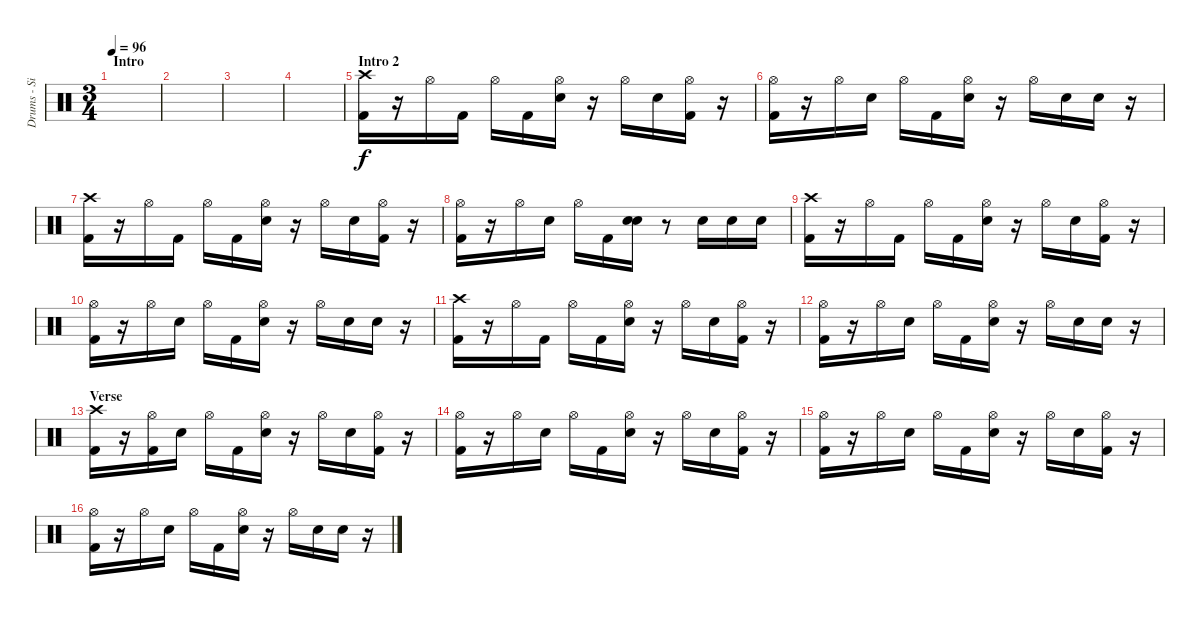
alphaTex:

\track ("Drums - Si" "Drums - Si") {instrument percussion}
\staff {score}
\articulation defaults
\ts (3 4)
\section ("" "Intro")
\tempo 96
\clef neutral
\ks c
|
|
|
|
\section ("" "Intro 2")
("Crash high (hit)" "Kick (hit) 2").16 r.16 "Hi-Hat (open)".16 "Kick (hit) 2".16 "Hi-Hat (open)".16 "Kick (hit) 2".16 ("Hi-Hat (open)" "Snare (hit) 2").16 r.16 "Hi-Hat (open)".16 "Snare (hit) 2".16 ("Hi-Hat (open)" "Kick (hit) 2").16 r.16 |
("Hi-Hat (open)" "Kick (hit) 2").16 r.16 "Hi-Hat (open)".16 "Snare (hit) 2".16 "Hi-Hat (open)".16 "Kick (hit) 2".16 ("Hi-Hat (open)" "Snare (hit) 2").16 r.16 "Hi-Hat (open)".16 "Snare (hit) 2".16 "Snare (hit) 2".16 r.16 |
("Crash high (hit)" "Kick (hit) 2").16 r.16 "Hi-Hat (open)".16 "Kick (hit) 2".16 "Hi-Hat (open)".16 "Kick (hit) 2".16 ("Hi-Hat (open)" "Snare (hit) 2").16 r.16 "Hi-Hat (open)".16 "Snare (hit) 2".16 ("Hi-Hat (open)" "Kick (hit) 2").16 r.16 |
("Hi-Hat (open)" "Kick (hit) 2").16 r.16 "Hi-Hat (open)".16 "Snare (hit) 2".16 "Hi-Hat (open)".16 "Kick (hit) 2".16 ("Snare (hit) 2" "Snare (hit) 2").16 r.8 "Snare (hit) 2".16 "Snare (hit) 2".16 "Snare (hit) 2".16 |
("Crash high (hit)" "Kick (hit) 2").16 r.16 "Hi-Hat (open)".16 "Kick (hit) 2".16 "Hi-Hat (open)".16 "Kick (hit) 2".16 ("Hi-Hat (open)" "Snare (hit) 2").16 r.16 "Hi-Hat (open)".16 "Snare (hit) 2".16 ("Hi-Hat (open)" "Kick (hit) 2").16 r.16 |
("Hi-Hat (open)" "Kick (hit) 2").16 r.16 "Hi-Hat (open)".16 "Snare (hit) 2".16 "Hi-Hat (open)".16 "Kick (hit) 2".16 ("Hi-Hat (open)" "Snare (hit) 2").16 r.16 "Hi-Hat (open)".16 "Snare (hit) 2".16 "Snare (hit) 2".16 r.16 |
("Crash high (hit)" "Kick (hit) 2").16 r.16 "Hi-Hat (open)".16 "Kick (hit) 2".16 "Hi-Hat (open)".16 "Kick (hit) 2".16 ("Hi-Hat (open)" "Snare (hit) 2").16 r.16 "Hi-Hat (open)".16 "Snare (hit) 2".16 ("Hi-Hat (open)" "Kick (hit) 2").16 r.16 |
("Hi-Hat (open)" "Kick (hit) 2").16 r.16 "Hi-Hat (open)".16 "Snare (hit) 2".16 "Hi-Hat (open)".16 "Kick (hit) 2".16 ("Hi-Hat (open)" "Snare (hit) 2").16 r.16 "Hi-Hat (open)".16 "Snare (hit) 2".16 "Snare (hit) 2".16 r.16 |
\section ("" "Verse")
("Crash high (hit)" "Kick (hit) 2").16 r.16 ("Hi-Hat (open)" "Kick (hit) 2").16 "Snare (hit) 2".16 "Hi-Hat (open)".16 "Kick (hit) 2".16 ("Hi-Hat (open)" "Snare (hit) 2").16 r.16 "Hi-Hat (open)".16 "Snare (hit) 2".16 ("Hi-Hat (open)" "Kick (hit) 2").16 r.16 |
("Hi-Hat (open)" "Kick (hit) 2").16 r.16 "Hi-Hat (open)".16 "Snare (hit) 2".16 "Hi-Hat (open)".16 "Kick (hit) 2".16 ("Hi-Hat (open)" "Snare (hit) 2").16 r.16 "Hi-Hat (open)".16 "Snare (hit) 2".16 ("Hi-Hat (open)" "Kick (hit) 2").16 r.16 |
("Hi-Hat (open)" "Kick (hit) 2").16 r.16 "Hi-Hat (open)".16 "Snare (hit) 2".16 "Hi-Hat (open)".16 "Kick (hit) 2".16 ("Hi-Hat (open)" "Snare (hit) 2").16 r.16 "Hi-Hat (open)".16 "Snare (hit) 2".16 ("Hi-Hat (open)" "Kick (hit) 2").16 r.16 |
("Hi-Hat (open)" "Kick (hit) 2").16 r.16 "Hi-Hat (open)".16 "Snare (hit) 2".16 "Hi-Hat (open)".16 "Kick (hit) 2".16 ("Hi-Hat (open)" "Snare (hit) 2").16 r.16 "Hi-Hat (open)".16 "Snare (hit) 2".16 "Snare (hit) 2".16 r.16
